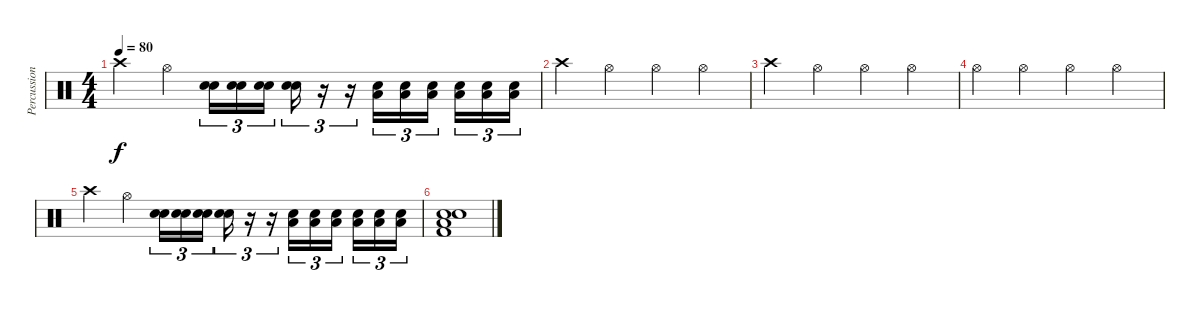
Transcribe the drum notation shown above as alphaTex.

\track ("Percussion" "Percussion") {instrument percussion}
\staff {score}
\articulation defaults
\ts (4 4)
\tempo 80
\clef neutral
\ks c "Crash high (hit)".4{dy f} "Hi-Hat (open)".4
("Snare (hit) 2" "Electric Snare (hit)").16{tu (3 2)} ("Snare (hit) 2" "Electric Snare (hit)").16{tu (3 2)} ("Snare (hit) 2" "Electric Snare (hit)").16{tu (3 2) beam splitsecondary} ("Snare (hit) 2" "Electric Snare (hit)").16{tu (3 2)} r.16{tu (3 2)} r.16{tu (3 2)} ("Low Floor Tom (hit)" "Electric Snare (hit)").16{tu (3 2)} ("Low Floor Tom (hit)" "Electric Snare (hit)").16{tu (3 2)} ("Low Floor Tom (hit)" "Electric Snare (hit)").16{tu (3 2) beam splitsecondary} ("Low Floor Tom (hit)" "Electric Snare (hit)").16{tu (3 2)} ("Low Floor Tom (hit)" "Electric Snare (hit)").16{tu (3 2)} ("Low Floor Tom (hit)" "Electric Snare (hit)").16{tu (3 2)} |
"Crash high (hit)".4 "Hi-Hat (open)".4 "Hi-Hat (open)".4 "Hi-Hat (open)".4 |
"Crash high (hit)".4 "Hi-Hat (open)".4 "Hi-Hat (open)".4 "Hi-Hat (open)".4 |
"Hi-Hat (open)".4 "Hi-Hat (open)".4 "Hi-Hat (open)".4 "Hi-Hat (open)".4 |
"Crash high (hit)".4 "Hi-Hat (open)".4 ("Snare (hit) 2" "Electric Snare (hit)").16{tu (3 2)} ("Snare (hit) 2" "Electric Snare (hit)").16{tu (3 2)} ("Snare (hit) 2" "Electric Snare (hit)").16{tu (3 2) beam splitsecondary} ("Snare (hit) 2" "Electric Snare (hit)").16{tu (3 2)} r.16{tu (3 2)} r.16{tu (3 2)} ("Low Floor Tom (hit)" "Electric Snare (hit)").16{tu (3 2)} ("Low Floor Tom (hit)" "Electric Snare (hit)").16{tu (3 2)} ("Low Floor Tom (hit)" "Electric Snare (hit)").16{tu (3 2) beam splitsecondary} ("Low Floor Tom (hit)" "Electric Snare (hit)").16{tu (3 2)} ("Low Floor Tom (hit)" "Electric Snare (hit)").16{tu (3 2)} ("Low Floor Tom (hit)" "Electric Snare (hit)").16{tu (3 2)} |
("Low Floor Tom (hit)" "Snare (hit) 2" "Electric Snare (hit)" "Kick (hit) 2").1
